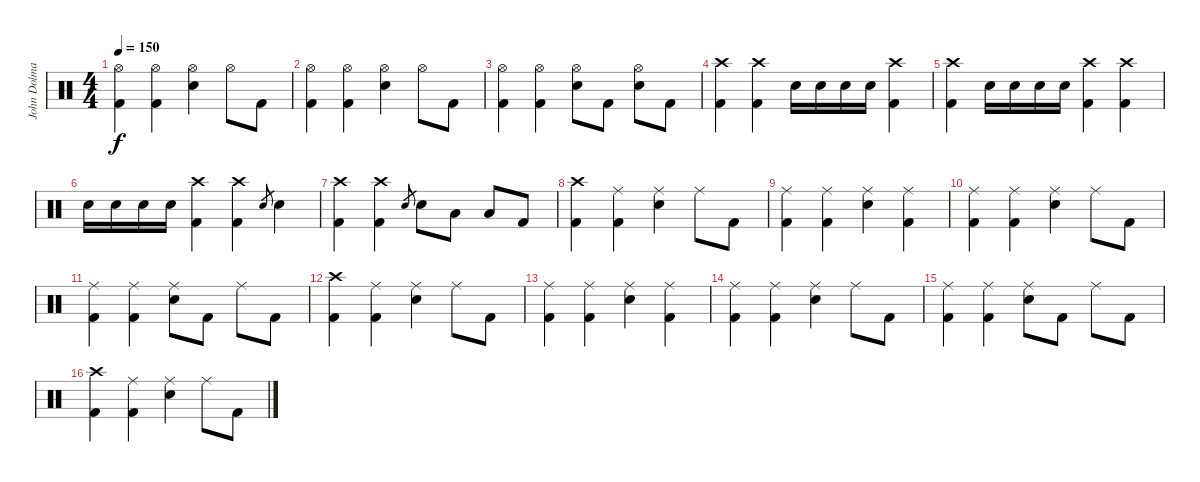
\track ("John Dolmayan(Drums)" "John Dolma") {instrument percussion}
\staff {score}
\articulation defaults
\ts (4 4)
\tempo 150
\clef neutral
\ks c
("Hi-Hat (open)" "Kick (hit) 2").4{dy f} ("Hi-Hat (open)" "Kick (hit) 2").4 ("Hi-Hat (open)" "Snare (hit) 2").4 "Hi-Hat (open)".8 "Kick (hit) 2".8 |
("Hi-Hat (open)" "Kick (hit) 2").4 ("Hi-Hat (open)" "Kick (hit) 2").4 ("Hi-Hat (open)" "Snare (hit) 2").4 "Hi-Hat (open)".8 "Kick (hit) 2".8 |
("Hi-Hat (open)" "Kick (hit) 2").4 ("Hi-Hat (open)" "Kick (hit) 2").4 ("Hi-Hat (open)" "Snare (hit) 2").8 "Kick (hit) 2".8 ("Hi-Hat (open)" "Snare (hit) 2").8 "Kick (hit) 2".8 |
("Crash high (hit)" "Kick (hit) 2").4 ("Crash high (hit)" "Kick (hit) 2").4 "Snare (hit) 2".16 "Snare (hit) 2".16 "Snare (hit) 2".16 "Snare (hit) 2".16 ("Crash high (hit)" "Kick (hit) 2").4 |
("Crash high (hit)" "Kick (hit) 2").4 "Snare (hit) 2".16 "Snare (hit) 2".16 "Snare (hit) 2".16 "Snare (hit) 2".16 ("Crash high (hit)" "Kick (hit) 2").4 ("Crash high (hit)" "Kick (hit) 2").4 |
"Snare (hit) 2".16 "Snare (hit) 2".16 "Snare (hit) 2".16 "Snare (hit) 2".16 ("Crash high (hit)" "Kick (hit) 2").4 ("Crash high (hit)" "Kick (hit) 2").4 "Snare (hit) 2".8{gr} "Snare (hit) 2".4 |
("Crash high (hit)" "Kick (hit) 2").4 ("Crash high (hit)" "Kick (hit) 2").4 "Snare (hit) 2".8{gr} "Snare (hit) 2".8 "Low Tom (hit)".8 "Low Tom (hit)".8 "Kick (hit) 2".8 |
("Crash high (hit)" "Kick (hit) 2").4 ("Ride (middle)" "Kick (hit) 2").4 ("Ride (middle)" "Snare (hit) 2").4 "Ride (middle)".8 "Kick (hit) 2".8 |
("Ride (middle)" "Kick (hit) 2").4 ("Ride (middle)" "Kick (hit) 2").4 ("Ride (middle)" "Snare (hit) 2").4 ("Ride (middle)" "Kick (hit) 2").4 |
("Ride (middle)" "Kick (hit) 2").4 ("Ride (middle)" "Kick (hit) 2").4 ("Ride (middle)" "Snare (hit) 2").4 "Ride (middle)".8 "Kick (hit) 2".8 |
("Ride (middle)" "Kick (hit) 2").4 ("Ride (middle)" "Kick (hit) 2").4 ("Ride (middle)" "Snare (hit) 2").8 "Kick (hit) 2".8 "Ride (middle)".8 "Kick (hit) 2".8 |
("Crash high (hit)" "Kick (hit) 2").4 ("Ride (middle)" "Kick (hit) 2").4 ("Ride (middle)" "Snare (hit) 2").4 "Ride (middle)".8 "Kick (hit) 2".8 |
("Ride (middle)" "Kick (hit) 2").4 ("Ride (middle)" "Kick (hit) 2").4 ("Ride (middle)" "Snare (hit) 2").4 ("Ride (middle)" "Kick (hit) 2").4 |
("Ride (middle)" "Kick (hit) 2").4 ("Ride (middle)" "Kick (hit) 2").4 ("Ride (middle)" "Snare (hit) 2").4 "Ride (middle)".8 "Kick (hit) 2".8 |
("Ride (middle)" "Kick (hit) 2").4 ("Ride (middle)" "Kick (hit) 2").4 ("Ride (middle)" "Snare (hit) 2").8 "Kick (hit) 2".8 "Ride (middle)".8 "Kick (hit) 2".8 |
("Crash high (hit)" "Kick (hit) 2").4 ("Ride (middle)" "Kick (hit) 2").4 ("Ride (middle)" "Snare (hit) 2").4 "Ride (middle)".8 "Kick (hit) 2".8
